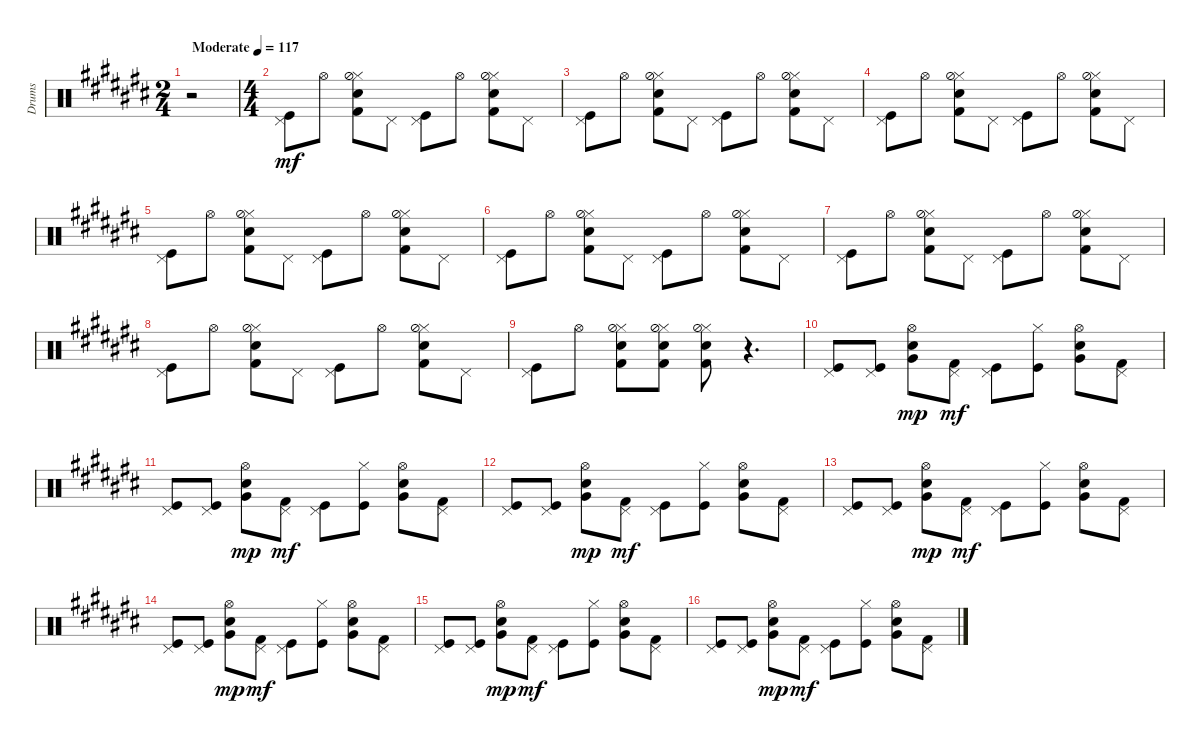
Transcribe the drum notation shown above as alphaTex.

\track ("Drums" "Drums") {instrument percussion}
\staff {score}
\articulation defaults
\ts (2 4)
\tempo (117 "Moderate")
\clef neutral
\ks a#minor
r.2{dy mf} |
\ts (4 4)
("Pedal Hi-Hat (hit)" "Kick (hit)").8 "Hi-Hat (open)".8 ("Kick (hit) 2" "Hi-Hat (closed)" "Snare (hit) 2" "Hi-Hat (half)").8 "Pedal Hi-Hat (hit)".8 ("Kick (hit)" "Pedal Hi-Hat (hit)").8 "Hi-Hat (open)".8 ("Kick (hit) 2" "Hi-Hat (closed)" "Snare (hit) 2" "Hi-Hat (half)").8 "Pedal Hi-Hat (hit)".8 |
("Kick (hit)" "Pedal Hi-Hat (hit)").8 "Hi-Hat (open)".8 ("Kick (hit) 2" "Hi-Hat (closed)" "Snare (hit) 2" "Hi-Hat (half)").8 "Pedal Hi-Hat (hit)".8 ("Kick (hit)" "Pedal Hi-Hat (hit)").8 "Hi-Hat (open)".8 ("Kick (hit) 2" "Hi-Hat (closed)" "Snare (hit) 2" "Hi-Hat (half)").8 "Pedal Hi-Hat (hit)".8 |
("Kick (hit)" "Pedal Hi-Hat (hit)").8 "Hi-Hat (open)".8 ("Kick (hit) 2" "Hi-Hat (closed)" "Snare (hit) 2" "Hi-Hat (half)").8 "Pedal Hi-Hat (hit)".8 ("Kick (hit)" "Pedal Hi-Hat (hit)").8 "Hi-Hat (open)".8 ("Kick (hit) 2" "Hi-Hat (closed)" "Snare (hit) 2" "Hi-Hat (half)").8 "Pedal Hi-Hat (hit)".8 |
("Kick (hit)" "Pedal Hi-Hat (hit)").8 "Hi-Hat (open)".8 ("Kick (hit) 2" "Hi-Hat (closed)" "Snare (hit) 2" "Hi-Hat (half)").8 "Pedal Hi-Hat (hit)".8 ("Kick (hit)" "Pedal Hi-Hat (hit)").8 "Hi-Hat (open)".8 ("Kick (hit) 2" "Hi-Hat (closed)" "Snare (hit) 2" "Hi-Hat (half)").8 "Pedal Hi-Hat (hit)".8 |
("Kick (hit)" "Pedal Hi-Hat (hit)").8 "Hi-Hat (open)".8 ("Kick (hit) 2" "Hi-Hat (closed)" "Snare (hit) 2" "Hi-Hat (half)").8 "Pedal Hi-Hat (hit)".8 ("Kick (hit)" "Pedal Hi-Hat (hit)").8 "Hi-Hat (open)".8 ("Kick (hit) 2" "Hi-Hat (closed)" "Snare (hit) 2" "Hi-Hat (half)").8 "Pedal Hi-Hat (hit)".8 |
("Kick (hit)" "Pedal Hi-Hat (hit)").8 "Hi-Hat (open)".8 ("Kick (hit) 2" "Hi-Hat (closed)" "Snare (hit) 2" "Hi-Hat (half)").8 "Pedal Hi-Hat (hit)".8 ("Kick (hit)" "Pedal Hi-Hat (hit)").8 "Hi-Hat (open)".8 ("Kick (hit) 2" "Hi-Hat (closed)" "Snare (hit) 2" "Hi-Hat (half)").8 "Pedal Hi-Hat (hit)".8 |
("Kick (hit)" "Pedal Hi-Hat (hit)").8 "Hi-Hat (open)".8 ("Kick (hit) 2" "Hi-Hat (closed)" "Snare (hit) 2" "Hi-Hat (half)").8 "Pedal Hi-Hat (hit)".8 ("Kick (hit)" "Pedal Hi-Hat (hit)").8 "Hi-Hat (open)".8 ("Kick (hit) 2" "Hi-Hat (closed)" "Snare (hit) 2" "Hi-Hat (half)").8 "Pedal Hi-Hat (hit)".8 |
("Pedal Hi-Hat (hit)" "Kick (hit)").8 "Hi-Hat (open)".8 ("Kick (hit) 2" "Hi-Hat (closed)" "Snare (hit) 2" "Hi-Hat (half)").8 ("Snare (hit) 2" "Hi-Hat (closed)" "Kick (hit) 2" "Hi-Hat (half)").8 ("Snare (hit) 2" "Hi-Hat (closed)" "Kick (hit) 2" "Hi-Hat (half)").8 r.4{d} |
("Kick (hit)" "Pedal Hi-Hat (hit)").8 ("Kick (hit)" "Pedal Hi-Hat (hit)").8 ("Snare (hit) 2" "Hi-Hat (open)" "Very Low Tom (hit)").8{dy mp} ("Pedal Hi-Hat (hit)" "Kick (hit) 2").8{dy mf} ("Pedal Hi-Hat (hit)" "Kick (hit)").8 ("Kick (hit)" "Hi-Hat (closed)").8 ("Very Low Tom (hit)" "Snare (hit) 2" "Hi-Hat (open)").8 ("Pedal Hi-Hat (hit)" "Kick (hit) 2").8 |
("Pedal Hi-Hat (hit)" "Kick (hit)").8 ("Kick (hit)" "Pedal Hi-Hat (hit)").8 ("Snare (hit) 2" "Hi-Hat (open)" "Very Low Tom (hit)").8{dy mp} ("Pedal Hi-Hat (hit)" "Kick (hit) 2").8{dy mf} ("Pedal Hi-Hat (hit)" "Kick (hit)").8 ("Kick (hit)" "Hi-Hat (closed)").8 ("Very Low Tom (hit)" "Snare (hit) 2" "Hi-Hat (open)").8 ("Pedal Hi-Hat (hit)" "Kick (hit) 2").8 |
("Pedal Hi-Hat (hit)" "Kick (hit)").8 ("Kick (hit)" "Pedal Hi-Hat (hit)").8 ("Snare (hit) 2" "Hi-Hat (open)" "Very Low Tom (hit)").8{dy mp} ("Pedal Hi-Hat (hit)" "Kick (hit) 2").8{dy mf} ("Pedal Hi-Hat (hit)" "Kick (hit)").8 ("Kick (hit)" "Hi-Hat (closed)").8 ("Very Low Tom (hit)" "Snare (hit) 2" "Hi-Hat (open)").8 ("Pedal Hi-Hat (hit)" "Kick (hit) 2").8 |
("Pedal Hi-Hat (hit)" "Kick (hit)").8 ("Kick (hit)" "Pedal Hi-Hat (hit)").8 ("Snare (hit) 2" "Hi-Hat (open)" "Very Low Tom (hit)").8{dy mp} ("Pedal Hi-Hat (hit)" "Kick (hit) 2").8{dy mf} ("Pedal Hi-Hat (hit)" "Kick (hit)").8 ("Kick (hit)" "Hi-Hat (closed)").8 ("Very Low Tom (hit)" "Snare (hit) 2" "Hi-Hat (open)").8 ("Pedal Hi-Hat (hit)" "Kick (hit) 2").8 |
("Pedal Hi-Hat (hit)" "Kick (hit)").8 ("Kick (hit)" "Pedal Hi-Hat (hit)").8 ("Snare (hit) 2" "Hi-Hat (open)" "Very Low Tom (hit)").8{dy mp} ("Pedal Hi-Hat (hit)" "Kick (hit) 2").8{dy mf} ("Pedal Hi-Hat (hit)" "Kick (hit)").8 ("Kick (hit)" "Hi-Hat (closed)").8 ("Very Low Tom (hit)" "Snare (hit) 2" "Hi-Hat (open)").8 ("Pedal Hi-Hat (hit)" "Kick (hit) 2").8 |
("Pedal Hi-Hat (hit)" "Kick (hit)").8 ("Kick (hit)" "Pedal Hi-Hat (hit)").8 ("Snare (hit) 2" "Hi-Hat (open)" "Very Low Tom (hit)").8{dy mp} ("Pedal Hi-Hat (hit)" "Kick (hit) 2").8{dy mf} ("Pedal Hi-Hat (hit)" "Kick (hit)").8 ("Kick (hit)" "Hi-Hat (closed)").8 ("Very Low Tom (hit)" "Snare (hit) 2" "Hi-Hat (open)").8 ("Pedal Hi-Hat (hit)" "Kick (hit) 2").8 |
("Pedal Hi-Hat (hit)" "Kick (hit)").8 ("Kick (hit)" "Pedal Hi-Hat (hit)").8 ("Snare (hit) 2" "Hi-Hat (open)" "Very Low Tom (hit)").8{dy mp} ("Pedal Hi-Hat (hit)" "Kick (hit) 2").8{dy mf} ("Pedal Hi-Hat (hit)" "Kick (hit)").8 ("Kick (hit)" "Hi-Hat (closed)").8 ("Very Low Tom (hit)" "Snare (hit) 2" "Hi-Hat (open)").8 ("Pedal Hi-Hat (hit)" "Kick (hit) 2").8
